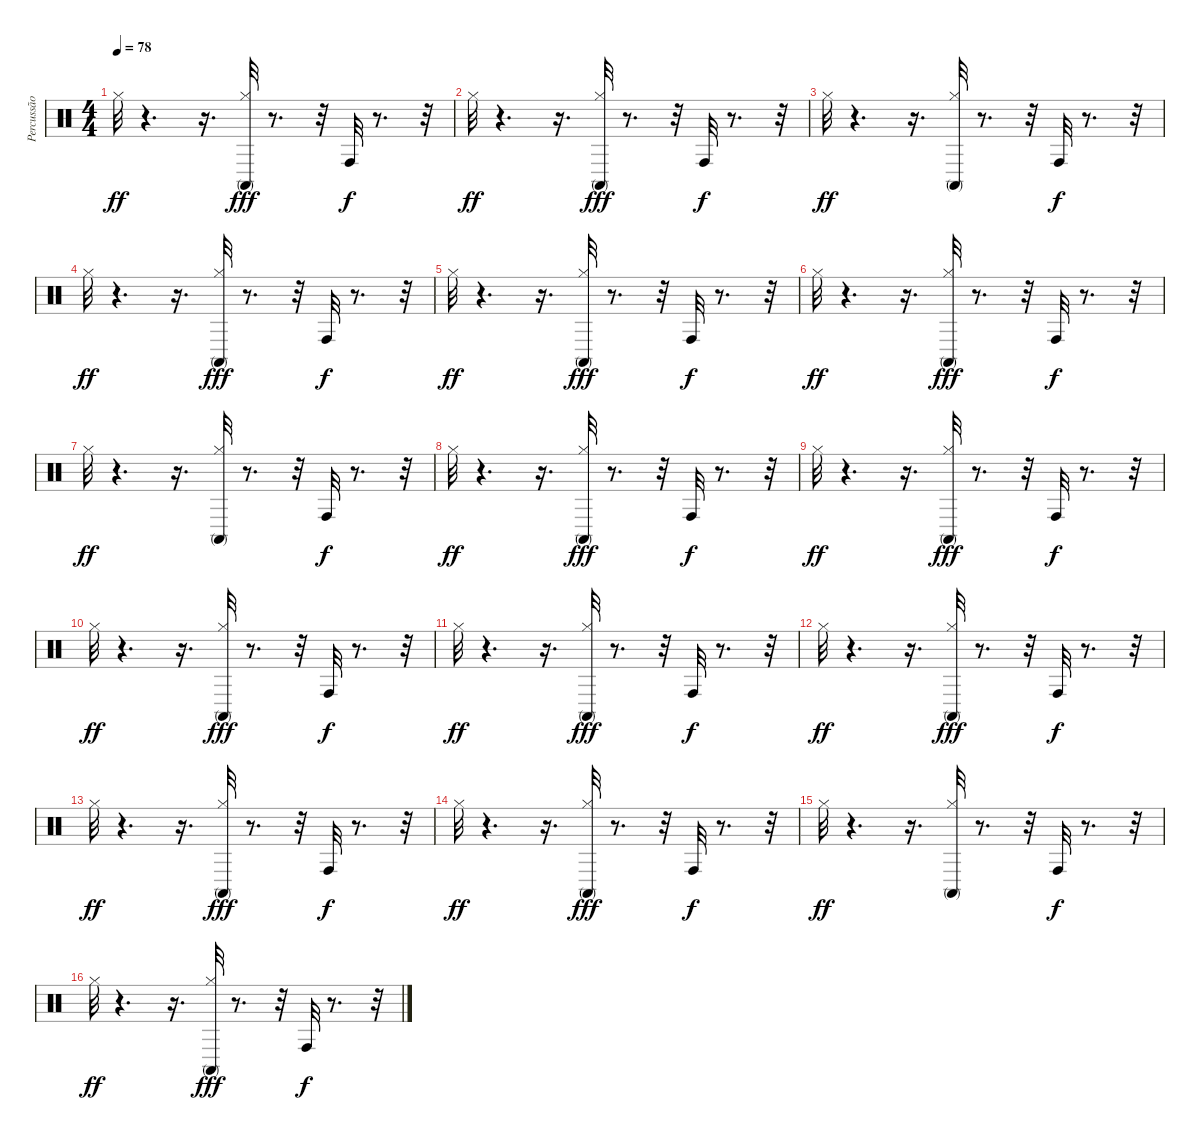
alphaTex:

\track ("Percussão" "Percussão") {instrument percussion}
\staff {score}
\articulation defaults
\ts (4 4)
\tempo 78
\clef neutral
\ks c "Hi-Hat (closed)".32{dy ff}
r.4{d} r.16{d} ("Hi-Hat (closed)" "Conga high (mute)").32{dy fff} r.8{d} r.32 "Conga high (hit)".32{dy f} r.8{d} r.32 |
"Hi-Hat (closed)".32{dy ff} r.4{d} r.16{d} ("Hi-Hat (closed)" "Conga high (mute)").32{dy fff} r.8{d} r.32 "Conga high (hit)".32{dy f} r.8{d} r.32 |
"Hi-Hat (closed)".32{dy ff} r.4{d} r.16{d} ("Conga high (mute)" "Hi-Hat (closed)").32 r.8{d} r.32 "Conga high (hit)".32{dy f} r.8{d} r.32 |
"Hi-Hat (closed)".32{dy ff} r.4{d} r.16{d} ("Hi-Hat (closed)" "Conga high (mute)").32{dy fff} r.8{d} r.32 "Conga high (hit)".32{dy f} r.8{d} r.32 |
"Hi-Hat (closed)".32{dy ff} r.4{d} r.16{d} ("Hi-Hat (closed)" "Conga high (mute)").32{dy fff} r.8{d} r.32 "Conga high (hit)".32{dy f} r.8{d} r.32 |
"Hi-Hat (closed)".32{dy ff} r.4{d} r.16{d} ("Hi-Hat (closed)" "Conga high (mute)").32{dy fff} r.8{d} r.32 "Conga high (hit)".32{dy f} r.8{d} r.32 |
"Hi-Hat (closed)".32{dy ff} r.4{d} r.16{d} ("Conga high (mute)" "Hi-Hat (closed)").32 r.8{d} r.32 "Conga high (hit)".32{dy f} r.8{d} r.32 |
"Hi-Hat (closed)".32{dy ff} r.4{d} r.16{d} ("Hi-Hat (closed)" "Conga high (mute)").32{dy fff} r.8{d} r.32 "Conga high (hit)".32{dy f} r.8{d} r.32 |
"Hi-Hat (closed)".32{dy ff} r.4{d} r.16{d} ("Hi-Hat (closed)" "Conga high (mute)").32{dy fff} r.8{d} r.32 "Conga high (hit)".32{dy f} r.8{d} r.32 |
"Hi-Hat (closed)".32{dy ff} r.4{d} r.16{d} ("Hi-Hat (closed)" "Conga high (mute)").32{dy fff} r.8{d} r.32 "Conga high (hit)".32{dy f} r.8{d} r.32 |
"Hi-Hat (closed)".32{dy ff} r.4{d} r.16{d} ("Hi-Hat (closed)" "Conga high (mute)").32{dy fff} r.8{d} r.32 "Conga high (hit)".32{dy f} r.8{d} r.32 |
"Hi-Hat (closed)".32{dy ff} r.4{d} r.16{d} ("Hi-Hat (closed)" "Conga high (mute)").32{dy fff} r.8{d} r.32 "Conga high (hit)".32{dy f} r.8{d} r.32 |
"Hi-Hat (closed)".32{dy ff} r.4{d} r.16{d} ("Hi-Hat (closed)" "Conga high (mute)").32{dy fff} r.8{d} r.32 "Conga high (hit)".32{dy f} r.8{d} r.32 |
"Hi-Hat (closed)".32{dy ff} r.4{d} r.16{d} ("Hi-Hat (closed)" "Conga high (mute)").32{dy fff} r.8{d} r.32 "Conga high (hit)".32{dy f} r.8{d} r.32 |
"Hi-Hat (closed)".32{dy ff} r.4{d} r.16{d} ("Conga high (mute)" "Hi-Hat (closed)").32 r.8{d} r.32 "Conga high (hit)".32{dy f} r.8{d} r.32 |
"Hi-Hat (closed)".32{dy ff} r.4{d} r.16{d} ("Hi-Hat (closed)" "Conga high (mute)").32{dy fff} r.8{d} r.32 "Conga high (hit)".32{dy f} r.8{d} r.32
